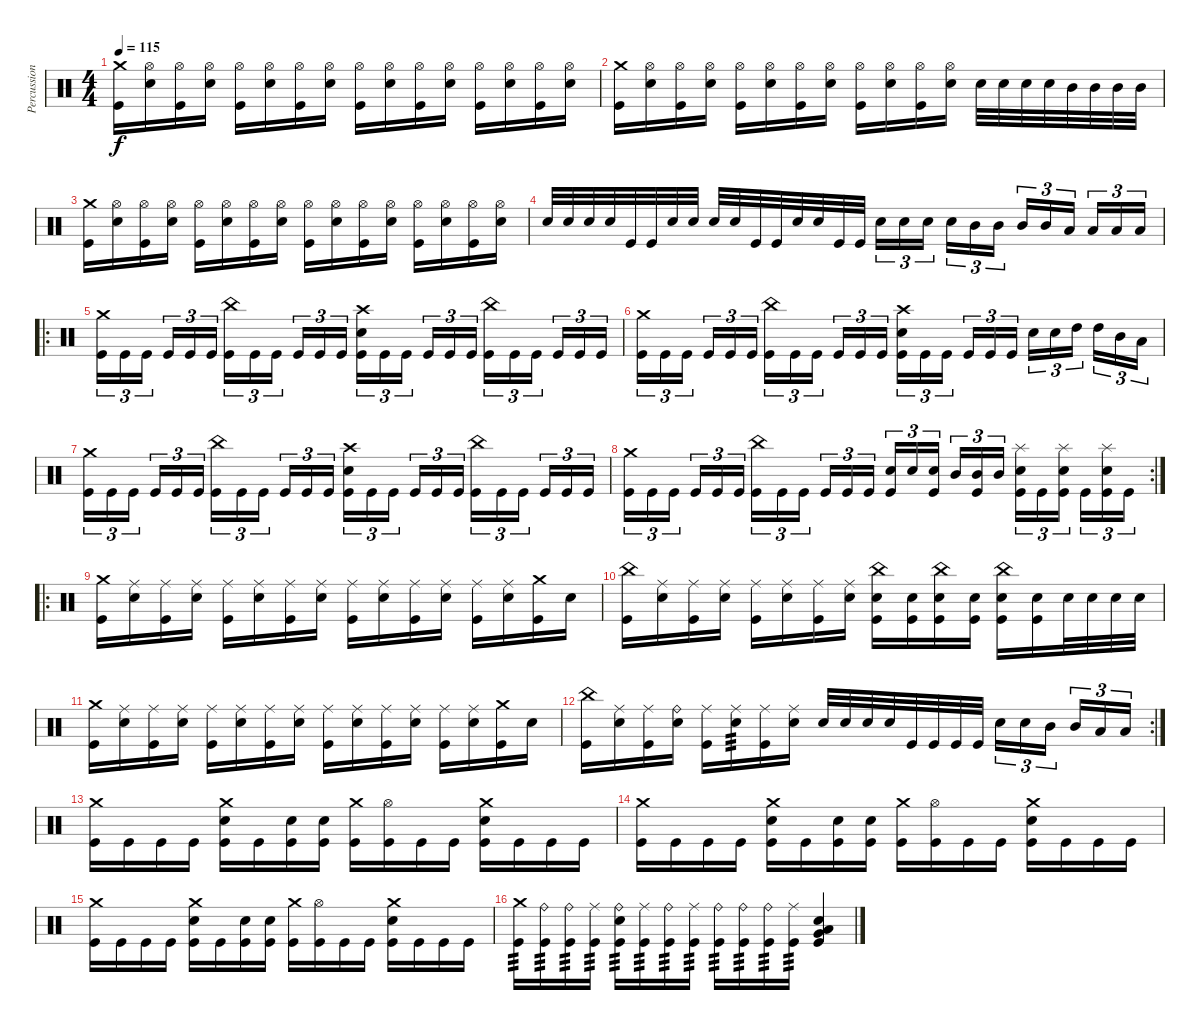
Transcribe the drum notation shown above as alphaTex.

\track ("Percussion" "Percussion") {instrument percussion}
\staff {score}
\articulation defaults
\ts (4 4)
\tempo 115
\clef neutral
\ks c
("Crash medium (hit)" "Kick (hit)").16{dy f} ("Hi-Hat (open)" "Electric Snare (hit)").16 ("Hi-Hat (open)" "Kick (hit)").16 ("Hi-Hat (open)" "Electric Snare (hit)").16 ("Hi-Hat (open)" "Kick (hit)").16 ("Hi-Hat (open)" "Electric Snare (hit)").16 ("Hi-Hat (open)" "Kick (hit)").16 ("Hi-Hat (open)" "Electric Snare (hit)").16 ("Hi-Hat (open)" "Kick (hit)").16 ("Hi-Hat (open)" "Electric Snare (hit)").16 ("Hi-Hat (open)" "Kick (hit)").16 ("Hi-Hat (open)" "Electric Snare (hit)").16 ("Hi-Hat (open)" "Kick (hit)").16 ("Hi-Hat (open)" "Electric Snare (hit)").16 ("Hi-Hat (open)" "Kick (hit)").16 ("Hi-Hat (open)" "Electric Snare (hit)").16 |
("Crash medium (hit)" "Kick (hit)").16 ("Hi-Hat (open)" "Electric Snare (hit)").16 ("Hi-Hat (open)" "Kick (hit)").16 ("Hi-Hat (open)" "Electric Snare (hit)").16 ("Hi-Hat (open)" "Kick (hit)").16 ("Hi-Hat (open)" "Electric Snare (hit)").16 ("Hi-Hat (open)" "Kick (hit)").16 ("Hi-Hat (open)" "Electric Snare (hit)").16 ("Hi-Hat (open)" "Kick (hit)").16 ("Hi-Hat (open)" "Electric Snare (hit)").16 ("Hi-Hat (open)" "Kick (hit)").16 ("Hi-Hat (open)" "Electric Snare (hit)").16 "Electric Snare (hit)".32 "Electric Snare (hit)".32 "Electric Snare (hit)".32 "Electric Snare (hit)".32 "Mid Tom (hit)".32 "Mid Tom (hit)".32 "Mid Tom (hit)".32 "Mid Tom (hit)".32 |
("Crash medium (hit)" "Kick (hit)").16 ("Hi-Hat (open)" "Electric Snare (hit)").16 ("Hi-Hat (open)" "Kick (hit)").16 ("Hi-Hat (open)" "Electric Snare (hit)").16 ("Hi-Hat (open)" "Kick (hit)").16 ("Hi-Hat (open)" "Electric Snare (hit)").16 ("Hi-Hat (open)" "Kick (hit)").16 ("Hi-Hat (open)" "Electric Snare (hit)").16 ("Hi-Hat (open)" "Kick (hit)").16 ("Hi-Hat (open)" "Electric Snare (hit)").16 ("Hi-Hat (open)" "Kick (hit)").16 ("Hi-Hat (open)" "Electric Snare (hit)").16 ("Hi-Hat (open)" "Kick (hit)").16 ("Hi-Hat (open)" "Electric Snare (hit)").16 ("Hi-Hat (open)" "Kick (hit)").16 ("Hi-Hat (open)" "Electric Snare (hit)").16 |
"Electric Snare (hit)".32 "Electric Snare (hit)".32 "Electric Snare (hit)".32 "Electric Snare (hit)".32 "Kick (hit)".32 "Kick (hit)".32 "Electric Snare (hit)".32 "Electric Snare (hit)".32 "Electric Snare (hit)".32 "Electric Snare (hit)".32 "Kick (hit)".32 "Kick (hit)".32 "Electric Snare (hit)".32 "Electric Snare (hit)".32 "Kick (hit)".32 "Kick (hit)".32 "Electric Snare (hit)".16{tu (3 2)} "Electric Snare (hit)".16{tu (3 2)} "Electric Snare (hit)".16{tu (3 2) beam splitsecondary} "Electric Snare (hit)".16{tu (3 2)} "Mid Tom (hit)".16{tu (3 2)} "Mid Tom (hit)".16{tu (3 2)} "Mid Tom (hit)".16{tu (3 2)} "Mid Tom (hit)".16{tu (3 2)} "Low Tom (hit)".16{tu (3 2) beam splitsecondary} "Low Tom (hit)".16{tu (3 2)} "Low Tom (hit)".16{tu (3 2)} "Low Tom (hit)".16{tu (3 2)} |
\ro
("Crash medium (hit)" "Kick (hit)").16{tu (3 2)} "Kick (hit)".16{tu (3 2)} "Kick (hit)".16{tu (3 2) beam splitsecondary} "Kick (hit)".16{tu (3 2)} "Kick (hit)".16{tu (3 2)} "Kick (hit)".16{tu (3 2)} ("China (hit)" "Kick (hit)").16{tu (3 2)} "Kick (hit)".16{tu (3 2)} "Kick (hit)".16{tu (3 2) beam splitsecondary} "Kick (hit)".16{tu (3 2)} "Kick (hit)".16{tu (3 2)} "Kick (hit)".16{tu (3 2)} ("Crash high (hit)" "Electric Snare (hit)" "Kick (hit)").16{tu (3 2)} "Kick (hit)".16{tu (3 2)} "Kick (hit)".16{tu (3 2) beam splitsecondary} "Kick (hit)".16{tu (3 2)} "Kick (hit)".16{tu (3 2)} "Kick (hit)".16{tu (3 2)} ("China (hit)" "Kick (hit)").16{tu (3 2)} "Kick (hit)".16{tu (3 2)} "Kick (hit)".16{tu (3 2) beam splitsecondary} "Kick (hit)".16{tu (3 2)} "Kick (hit)".16{tu (3 2)} "Kick (hit)".16{tu (3 2)} |
("Crash medium (hit)" "Kick (hit)").16{tu (3 2)} "Kick (hit)".16{tu (3 2)} "Kick (hit)".16{tu (3 2) beam splitsecondary} "Kick (hit)".16{tu (3 2)} "Kick (hit)".16{tu (3 2)} "Kick (hit)".16{tu (3 2)} ("China (hit)" "Kick (hit)").16{tu (3 2)} "Kick (hit)".16{tu (3 2)} "Kick (hit)".16{tu (3 2) beam splitsecondary} "Kick (hit)".16{tu (3 2)} "Kick (hit)".16{tu (3 2)} "Kick (hit)".16{tu (3 2)} ("Crash high (hit)" "Electric Snare (hit)" "Kick (hit)").16{tu (3 2)} "Kick (hit)".16{tu (3 2)} "Kick (hit)".16{tu (3 2) beam splitsecondary} "Kick (hit)".16{tu (3 2)} "Kick (hit)".16{tu (3 2)} "Kick (hit)".16{tu (3 2)} "Electric Snare (hit)".16{tu (3 2)} "Electric Snare (hit)".16{tu (3 2)} "High Tom (hit)".16{tu (3 2) beam splitsecondary} "High Tom (hit)".16{tu (3 2)} "Mid Tom (hit)".16{tu (3 2)} "Low Tom (hit)".16{tu (3 2)} |
("Crash medium (hit)" "Kick (hit)").16{tu (3 2)} "Kick (hit)".16{tu (3 2)} "Kick (hit)".16{tu (3 2) beam splitsecondary} "Kick (hit)".16{tu (3 2)} "Kick (hit)".16{tu (3 2)} "Kick (hit)".16{tu (3 2)} ("China (hit)" "Kick (hit)").16{tu (3 2)} "Kick (hit)".16{tu (3 2)} "Kick (hit)".16{tu (3 2) beam splitsecondary} "Kick (hit)".16{tu (3 2)} "Kick (hit)".16{tu (3 2)} "Kick (hit)".16{tu (3 2)} ("Crash high (hit)" "Electric Snare (hit)" "Kick (hit)").16{tu (3 2)} "Kick (hit)".16{tu (3 2)} "Kick (hit)".16{tu (3 2) beam splitsecondary} "Kick (hit)".16{tu (3 2)} "Kick (hit)".16{tu (3 2)} "Kick (hit)".16{tu (3 2)} ("China (hit)" "Kick (hit)").16{tu (3 2)} "Kick (hit)".16{tu (3 2)} "Kick (hit)".16{tu (3 2) beam splitsecondary} "Kick (hit)".16{tu (3 2)} "Kick (hit)".16{tu (3 2)} "Kick (hit)".16{tu (3 2)} |
\rc 2
("Crash medium (hit)" "Kick (hit)").16{tu (3 2)} "Kick (hit)".16{tu (3 2)} "Kick (hit)".16{tu (3 2) beam splitsecondary} "Kick (hit)".16{tu (3 2)} "Kick (hit)".16{tu (3 2)} "Kick (hit)".16{tu (3 2)} ("China (hit)" "Kick (hit)").16{tu (3 2)} "Kick (hit)".16{tu (3 2)} "Kick (hit)".16{tu (3 2) beam splitsecondary} "Kick (hit)".16{tu (3 2)} "Kick (hit)".16{tu (3 2)} "Kick (hit)".16{tu (3 2)} ("Electric Snare (hit)" "Kick (hit)").16{tu (3 2)} "Electric Snare (hit)".16{tu (3 2)} ("Electric Snare (hit)" "Kick (hit)").16{tu (3 2) beam splitsecondary} "Mid Tom (hit)".16{tu (3 2)} ("Mid Tom (hit)" "Kick (hit)").16{tu (3 2)} "Mid Tom (hit)".16{tu (3 2)} ("Splash (hit)" "Electric Snare (hit)" "Kick (hit)").16{tu (3 2)} "Kick (hit)".16{tu (3 2)} ("Splash (hit)" "Electric Snare (hit)" "Kick (hit)").16{tu (3 2) beam splitsecondary} "Kick (hit)".16{tu (3 2)} ("Splash (hit)" "Electric Snare (hit)" "Kick (hit)").16{tu (3 2)} "Kick (hit)".16{tu (3 2)} |
\ro
("Crash medium (hit)" "Kick (hit)").16 ("Ride (middle)" "Electric Snare (hit)").16 ("Ride (middle)" "Kick (hit)").16 ("Ride (middle)" "Electric Snare (hit)").16 ("Ride (middle)" "Kick (hit)").16 ("Ride (middle)" "Electric Snare (hit)").16 ("Ride (middle)" "Kick (hit)").16 ("Ride (middle)" "Electric Snare (hit)").16 ("Ride (middle)" "Kick (hit)").16 ("Ride (middle)" "Electric Snare (hit)").16 ("Ride (middle)" "Kick (hit)").16 ("Ride (middle)" "Electric Snare (hit)").16 ("Ride (middle)" "Kick (hit)").16 ("Ride (middle)" "Electric Snare (hit)").16 ("Crash medium (hit)" "Kick (hit)").16 "Electric Snare (hit)".16 |
("China (hit)" "Kick (hit)").16 ("Ride (middle)" "Electric Snare (hit)").16 ("Ride (middle)" "Kick (hit)").16 ("Ride (middle)" "Electric Snare (hit)").16 ("Ride (middle)" "Kick (hit)").16 ("Ride (middle)" "Electric Snare (hit)").16 ("Ride (middle)" "Kick (hit)").16 ("Ride (middle)" "Electric Snare (hit)").16 ("China (hit)" "Electric Snare (hit)" "Kick (hit)").16 ("Electric Snare (hit)" "Kick (hit)").16 ("China (hit)" "Electric Snare (hit)" "Kick (hit)").16 ("Electric Snare (hit)" "Kick (hit)").16 ("China (hit)" "Electric Snare (hit)" "Kick (hit)").16 ("Electric Snare (hit)" "Kick (hit)").16 "Electric Snare (hit)".32 "Electric Snare (hit)".32 "Electric Snare (hit)".32 "Electric Snare (hit)".32 |
("Crash medium (hit)" "Kick (hit)").16 ("Ride (middle)" "Electric Snare (hit)").16 ("Ride (middle)" "Kick (hit)").16 ("Ride (middle)" "Electric Snare (hit)").16 ("Ride (middle)" "Kick (hit)").16 ("Ride (middle)" "Electric Snare (hit)").16 ("Ride (middle)" "Kick (hit)").16 ("Ride (middle)" "Electric Snare (hit)").16 ("Ride (middle)" "Kick (hit)").16 ("Ride (middle)" "Electric Snare (hit)").16 ("Ride (middle)" "Kick (hit)").16 ("Ride (middle)" "Electric Snare (hit)").16 ("Ride (middle)" "Kick (hit)").16 ("Ride (middle)" "Electric Snare (hit)").16 ("Crash medium (hit)" "Kick (hit)").16 "Electric Snare (hit)".16 |
\rc 2
("China (hit)" "Kick (hit)").16 ("Ride (middle)" "Electric Snare (hit)").16 ("Ride (middle)" "Kick (hit)").16 ("Ride (bell)" "Electric Snare (hit)").16 ("Ride (middle)" "Kick (hit)").16 ("Ride (middle)" "Electric Snare (hit)").16{tp 3} ("Ride (middle)" "Kick (hit)").16 ("Ride (middle)" "Electric Snare (hit)").16 "Electric Snare (hit)".32 "Electric Snare (hit)".32 "Electric Snare (hit)".32 "Electric Snare (hit)".32 "Kick (hit)".32 "Kick (hit)".32 "Kick (hit)".32 "Kick (hit)".32 "Electric Snare (hit)".16{tu (3 2)} "Electric Snare (hit)".16{tu (3 2)} "Mid Tom (hit)".16{tu (3 2) beam splitsecondary} "Mid Tom (hit)".16{tu (3 2)} "Low Tom (hit)".16{tu (3 2)} "Low Tom (hit)".16{tu (3 2)} |
("Crash medium (hit)" "Kick (hit)").16 "Kick (hit)".16 "Kick (hit)".16 "Kick (hit)".16 ("Crash medium (hit)" "Electric Snare (hit)" "Kick (hit)").16 "Kick (hit)".16 ("Electric Snare (hit)" "Kick (hit)").16 ("Electric Snare (hit)" "Kick (hit)").16 ("Crash medium (hit)" "Kick (hit)").16 ("Hi-Hat (open)" "Kick (hit)").16 "Kick (hit)".16 "Kick (hit)".16 ("Crash medium (hit)" "Electric Snare (hit)" "Kick (hit)").16 "Kick (hit)".16 "Kick (hit)".16 "Kick (hit)".16 |
("Crash medium (hit)" "Kick (hit)").16 "Kick (hit)".16 "Kick (hit)".16 "Kick (hit)".16 ("Crash medium (hit)" "Electric Snare (hit)" "Kick (hit)").16 "Kick (hit)".16 ("Electric Snare (hit)" "Kick (hit)").16 ("Electric Snare (hit)" "Kick (hit)").16 ("Crash medium (hit)" "Kick (hit)").16 ("Hi-Hat (open)" "Kick (hit)").16 "Kick (hit)".16 "Kick (hit)".16 ("Crash medium (hit)" "Electric Snare (hit)" "Kick (hit)").16 "Kick (hit)".16 "Kick (hit)".16 "Kick (hit)".16 |
("Crash medium (hit)" "Kick (hit)").16 "Kick (hit)".16 "Kick (hit)".16 "Kick (hit)".16 ("Crash medium (hit)" "Electric Snare (hit)" "Kick (hit)").16 "Kick (hit)".16 ("Electric Snare (hit)" "Kick (hit)").16 ("Electric Snare (hit)" "Kick (hit)").16 ("Crash medium (hit)" "Kick (hit)").16 ("Hi-Hat (open)" "Kick (hit)").16 "Kick (hit)".16 "Kick (hit)".16 ("Crash medium (hit)" "Electric Snare (hit)" "Kick (hit)").16 "Kick (hit)".16 "Kick (hit)".16 "Kick (hit)".16 |
("Crash medium (hit)" "Kick (hit)").16{tp 3} ("Ride (bell)" "Kick (hit)").16{tp 3} ("Ride (bell)" "Kick (hit)").16{tp 3} ("Ride (middle)" "Kick (hit)").16{tp 3} ("Ride (bell)" "Electric Snare (hit)" "Kick (hit)").16{tp 3} ("Ride (middle)" "Kick (hit)").16{tp 3} ("Ride (bell)" "Kick (hit)").16{tp 3} ("Ride (middle)" "Kick (hit)").16{tp 3} ("Ride (bell)" "Kick (hit)").16{tp 3} ("Ride (bell)" "Kick (hit)").16{tp 3} ("Ride (bell)" "Kick (hit)").16{tp 3} ("Ride (middle)" "Kick (hit)").16{tp 3} ("Very Low Tom (hit)" "Low Tom (hit)" "Electric Snare (hit)" "Kick (hit)").4
